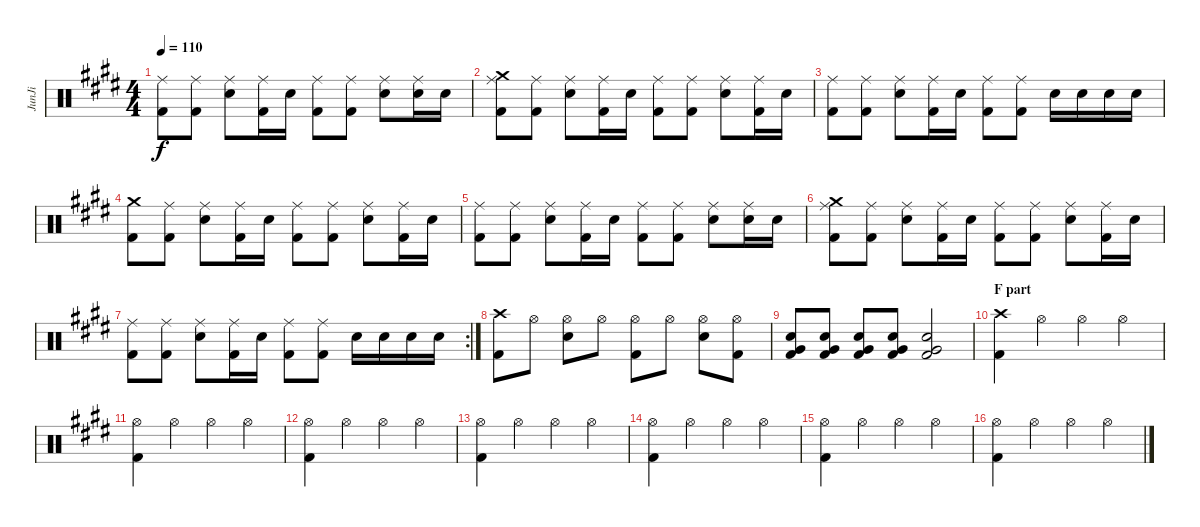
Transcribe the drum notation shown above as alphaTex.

\track ("JunJi" "JunJi") {instrument percussion}
\staff {score}
\articulation defaults
\ts (4 4)
\tempo 110
\clef neutral
\ks c#minor
("Ride (middle)" "Kick (hit) 2").8{dy f} ("Ride (middle)" "Kick (hit) 2").8 ("Ride (middle)" "Snare (hit) 2").8 ("Ride (middle)" "Kick (hit) 2").16 "Snare (hit) 2".16 ("Ride (middle)" "Kick (hit) 2").8 ("Ride (middle)" "Kick (hit) 2").8 ("Ride (middle)" "Snare (hit) 2").8 ("Ride (middle)" "Snare (hit) 2").16 "Snare (hit) 2".16 |
("Ride (middle)" "Kick (hit) 2" "Crash medium (hit)").8 ("Ride (middle)" "Kick (hit) 2").8 ("Ride (middle)" "Snare (hit) 2").8 ("Ride (middle)" "Kick (hit) 2").16 "Snare (hit) 2".16 ("Ride (middle)" "Kick (hit) 2").8 ("Ride (middle)" "Kick (hit) 2").8 ("Ride (middle)" "Snare (hit) 2").8 ("Ride (middle)" "Kick (hit) 2").16 "Snare (hit) 2".16 |
("Ride (middle)" "Kick (hit) 2").8 ("Ride (middle)" "Kick (hit) 2").8 ("Ride (middle)" "Snare (hit) 2").8 ("Ride (middle)" "Kick (hit) 2").16 "Snare (hit) 2".16 ("Ride (middle)" "Kick (hit) 2").8 ("Ride (middle)" "Kick (hit) 2").8 "Snare (hit) 2".16 "Snare (hit) 2".16 "Snare (hit) 2".16 "Snare (hit) 2".16 |
("Crash medium (hit)" "Kick (hit) 2").8 ("Ride (middle)" "Kick (hit) 2").8 ("Ride (middle)" "Snare (hit) 2").8 ("Ride (middle)" "Kick (hit) 2").16 "Snare (hit) 2".16 ("Ride (middle)" "Kick (hit) 2").8 ("Ride (middle)" "Kick (hit) 2").8 ("Ride (middle)" "Snare (hit) 2").8 ("Ride (middle)" "Kick (hit) 2").16 "Snare (hit) 2".16 |
("Ride (middle)" "Kick (hit) 2").8 ("Ride (middle)" "Kick (hit) 2").8 ("Ride (middle)" "Snare (hit) 2").8 ("Ride (middle)" "Kick (hit) 2").16 "Snare (hit) 2".16 ("Ride (middle)" "Kick (hit) 2").8 ("Ride (middle)" "Kick (hit) 2").8 ("Ride (middle)" "Snare (hit) 2").8 ("Ride (middle)" "Snare (hit) 2").16 "Snare (hit) 2".16 |
("Ride (middle)" "Kick (hit) 2" "Crash medium (hit)").8 ("Ride (middle)" "Kick (hit) 2").8 ("Ride (middle)" "Snare (hit) 2").8 ("Ride (middle)" "Kick (hit) 2").16 "Snare (hit) 2".16 ("Ride (middle)" "Kick (hit) 2").8 ("Ride (middle)" "Kick (hit) 2").8 ("Ride (middle)" "Snare (hit) 2").8 ("Ride (middle)" "Kick (hit) 2").16 "Snare (hit) 2".16 |
\rc 2
("Ride (middle)" "Kick (hit) 2").8 ("Ride (middle)" "Kick (hit) 2").8 ("Ride (middle)" "Snare (hit) 2").8 ("Ride (middle)" "Kick (hit) 2").16 "Snare (hit) 2".16 ("Ride (middle)" "Kick (hit) 2").8 ("Ride (middle)" "Kick (hit) 2").8 "Snare (hit) 2".16 "Snare (hit) 2".16 "Snare (hit) 2".16 "Snare (hit) 2".16 |
("Crash high (hit)" "Kick (hit) 2").8 "Hi-Hat (open)".8 ("Hi-Hat (open)" "Snare (hit) 2").8 "Hi-Hat (open)".8 ("Hi-Hat (open)" "Kick (hit) 2").8 "Hi-Hat (open)".8 ("Hi-Hat (open)" "Snare (hit) 2").8 ("Hi-Hat (open)" "Kick (hit) 2").8 |
("Snare (hit) 2" "Kick (hit) 2" "Very Low Tom (hit)").8 ("Snare (hit) 2" "Kick (hit) 2" "Very Low Tom (hit)").8 ("Snare (hit) 2" "Kick (hit) 2" "Very Low Tom (hit)").8 ("Snare (hit) 2" "Kick (hit) 2" "Very Low Tom (hit)").8 ("Snare (hit) 2" "Kick (hit) 2" "Very Low Tom (hit)").2 |
\section ("" "F part")
("Crash high (hit)" "Kick (hit) 2").4 "Hi-Hat (open)".4 "Hi-Hat (open)".4 "Hi-Hat (open)".4 |
("Hi-Hat (open)" "Kick (hit) 2").4 "Hi-Hat (open)".4 "Hi-Hat (open)".4 "Hi-Hat (open)".4 |
("Hi-Hat (open)" "Kick (hit) 2").4 "Hi-Hat (open)".4 "Hi-Hat (open)".4 "Hi-Hat (open)".4 |
("Hi-Hat (open)" "Kick (hit) 2").4 "Hi-Hat (open)".4 "Hi-Hat (open)".4 "Hi-Hat (open)".4 |
("Hi-Hat (open)" "Kick (hit) 2").4 "Hi-Hat (open)".4 "Hi-Hat (open)".4 "Hi-Hat (open)".4 |
("Hi-Hat (open)" "Kick (hit) 2").4 "Hi-Hat (open)".4 "Hi-Hat (open)".4 "Hi-Hat (open)".4 |
("Hi-Hat (open)" "Kick (hit) 2").4 "Hi-Hat (open)".4 "Hi-Hat (open)".4 "Hi-Hat (open)".4
